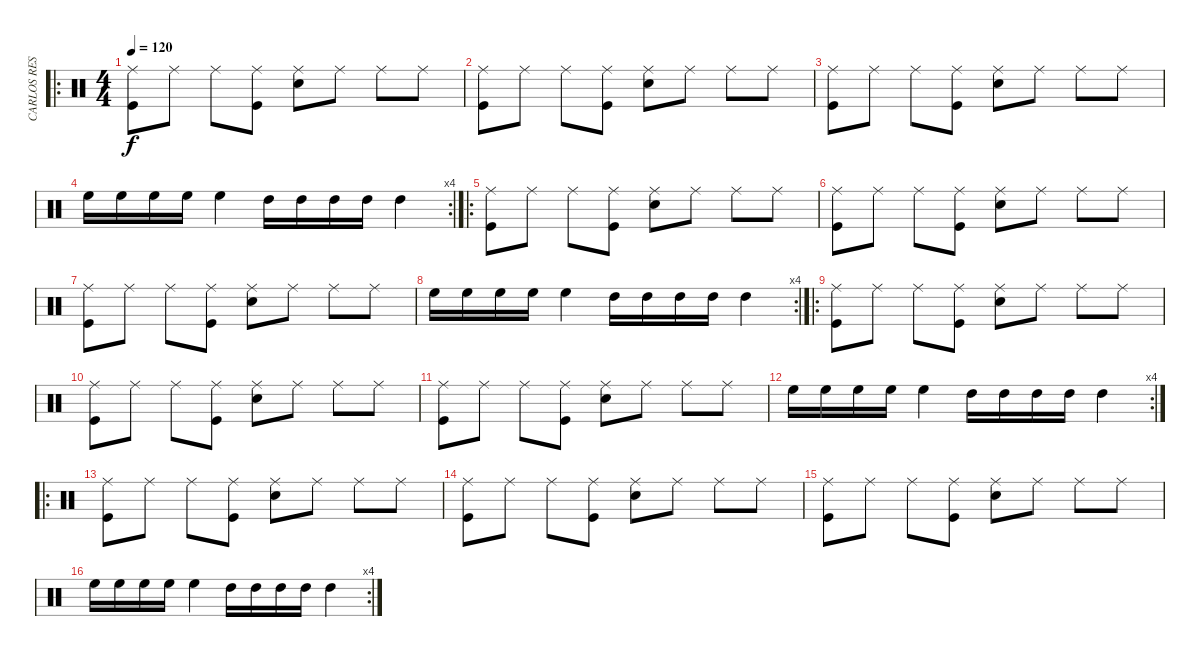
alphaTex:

\track ("CARLOS RESTREPO DARK BATERIA" "CARLOS RES") {instrument percussion}
\staff {score}
\articulation defaults
\ro
\ts (4 4)
\tempo 120
\clef neutral
\ks c
("Ride (middle)" "Kick (hit)").8{dy f} "Ride (middle)".8 "Ride (middle)".8 ("Ride (middle)" "Kick (hit)").8 ("Ride (middle)" "Snare (hit) 2").8 "Ride (middle)".8 "Ride (middle)".8 "Ride (middle)".8 |
("Ride (middle)" "Kick (hit)").8 "Ride (middle)".8 "Ride (middle)".8 ("Ride (middle)" "Kick (hit)").8 ("Ride (middle)" "Snare (hit) 2").8 "Ride (middle)".8 "Ride (middle)".8 "Ride (middle)".8 |
("Ride (middle)" "Kick (hit)").8 "Ride (middle)".8 "Ride (middle)".8 ("Ride (middle)" "Kick (hit)").8 ("Ride (middle)" "Snare (hit) 2").8 "Ride (middle)".8 "Ride (middle)".8 "Ride (middle)".8 |
\rc 4 "High Floor Tom (hit)".16 "High Floor Tom (hit)".16 "High Floor Tom (hit)".16 "High Floor Tom (hit)".16 "High Floor Tom (hit)".4 "High Tom (hit)".16 "High Tom (hit)".16 "High Tom (hit)".16 "High Tom (hit)".16 "High Tom (hit)".4
|
\ro
("Ride (middle)" "Kick (hit)").8 "Ride (middle)".8 "Ride (middle)".8 ("Ride (middle)" "Kick (hit)").8 ("Ride (middle)" "Snare (hit) 2").8 "Ride (middle)".8 "Ride (middle)".8 "Ride (middle)".8 |
("Ride (middle)" "Kick (hit)").8 "Ride (middle)".8 "Ride (middle)".8 ("Ride (middle)" "Kick (hit)").8 ("Ride (middle)" "Snare (hit) 2").8 "Ride (middle)".8 "Ride (middle)".8 "Ride (middle)".8 |
("Ride (middle)" "Kick (hit)").8 "Ride (middle)".8 "Ride (middle)".8 ("Ride (middle)" "Kick (hit)").8 ("Ride (middle)" "Snare (hit) 2").8 "Ride (middle)".8 "Ride (middle)".8 "Ride (middle)".8 |
\rc 4 "High Floor Tom (hit)".16 "High Floor Tom (hit)".16 "High Floor Tom (hit)".16 "High Floor Tom (hit)".16 "High Floor Tom (hit)".4 "High Tom (hit)".16 "High Tom (hit)".16 "High Tom (hit)".16 "High Tom (hit)".16 "High Tom (hit)".4
|
\ro
("Ride (middle)" "Kick (hit)").8 "Ride (middle)".8 "Ride (middle)".8 ("Ride (middle)" "Kick (hit)").8 ("Ride (middle)" "Snare (hit) 2").8 "Ride (middle)".8 "Ride (middle)".8 "Ride (middle)".8 |
("Ride (middle)" "Kick (hit)").8 "Ride (middle)".8 "Ride (middle)".8 ("Ride (middle)" "Kick (hit)").8 ("Ride (middle)" "Snare (hit) 2").8 "Ride (middle)".8 "Ride (middle)".8 "Ride (middle)".8 |
("Ride (middle)" "Kick (hit)").8 "Ride (middle)".8 "Ride (middle)".8 ("Ride (middle)" "Kick (hit)").8 ("Ride (middle)" "Snare (hit) 2").8 "Ride (middle)".8 "Ride (middle)".8 "Ride (middle)".8 |
\rc 4 "High Floor Tom (hit)".16 "High Floor Tom (hit)".16 "High Floor Tom (hit)".16 "High Floor Tom (hit)".16 "High Floor Tom (hit)".4 "High Tom (hit)".16 "High Tom (hit)".16 "High Tom (hit)".16 "High Tom (hit)".16 "High Tom (hit)".4
|
\ro
("Ride (middle)" "Kick (hit)").8 "Ride (middle)".8 "Ride (middle)".8 ("Ride (middle)" "Kick (hit)").8 ("Ride (middle)" "Snare (hit) 2").8 "Ride (middle)".8 "Ride (middle)".8 "Ride (middle)".8 |
("Ride (middle)" "Kick (hit)").8 "Ride (middle)".8 "Ride (middle)".8 ("Ride (middle)" "Kick (hit)").8 ("Ride (middle)" "Snare (hit) 2").8 "Ride (middle)".8 "Ride (middle)".8 "Ride (middle)".8 |
("Ride (middle)" "Kick (hit)").8 "Ride (middle)".8 "Ride (middle)".8 ("Ride (middle)" "Kick (hit)").8 ("Ride (middle)" "Snare (hit) 2").8 "Ride (middle)".8 "Ride (middle)".8 "Ride (middle)".8 |
\rc 4 "High Floor Tom (hit)".16 "High Floor Tom (hit)".16 "High Floor Tom (hit)".16 "High Floor Tom (hit)".16 "High Floor Tom (hit)".4 "High Tom (hit)".16 "High Tom (hit)".16 "High Tom (hit)".16 "High Tom (hit)".16 "High Tom (hit)".4
